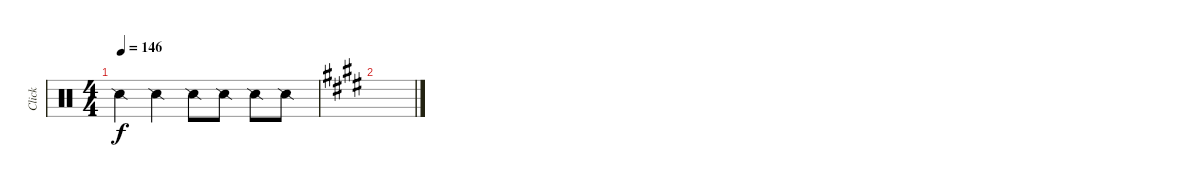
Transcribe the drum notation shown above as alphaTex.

\track ("Click" "Click") {instrument percussion}
\staff {score}
\articulation defaults
\ts (4 4)
\tempo 146
\clef neutral
\ks c "Snare (side stick) 2".4{dy f} "Snare (side stick) 2".4 "Snare (side stick) 2".8 "Snare (side stick) 2".8 "Snare (side stick) 2".8 "Snare (side stick) 2".8
|
\ks e
